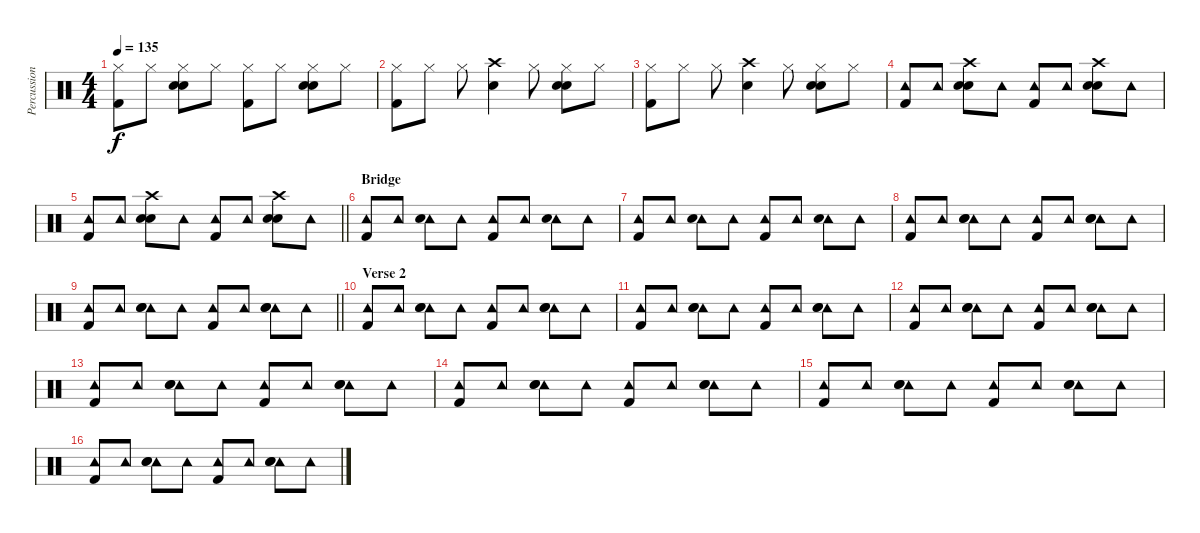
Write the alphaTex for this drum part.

\track ("Percussion" "Percussion") {instrument percussion}
\staff {score}
\articulation defaults
\ts (4 4)
\tempo 135
\clef neutral
\ks c
("Hi-Hat (closed)" "Kick (hit) 2").8{dy f} "Hi-Hat (closed)".8 ("Hi-Hat (closed)" "Snare (hit) 2" "Hand Clap (hit)").8 "Hi-Hat (closed)".8 ("Hi-Hat (closed)" "Kick (hit) 2").8 "Hi-Hat (closed)".8 ("Hi-Hat (closed)" "Snare (hit) 2" "Hand Clap (hit)").8 "Hi-Hat (closed)".8 |
("Hi-Hat (closed)" "Kick (hit) 2").8 "Hi-Hat (closed)".8 "Hi-Hat (closed)".8 ("Crash high (hit)" "Snare (hit) 2").4 "Hi-Hat (closed)".8 ("Hi-Hat (closed)" "Snare (hit) 2" "Hand Clap (hit)").8 "Hi-Hat (closed)".8 |
("Hi-Hat (closed)" "Kick (hit) 2").8 "Hi-Hat (closed)".8 "Hi-Hat (closed)".8 ("Crash high (hit)" "Snare (hit) 2").4 "Hi-Hat (closed)".8 ("Hi-Hat (closed)" "Snare (hit) 2" "Hand Clap (hit)").8 "Hi-Hat (closed)".8 |
("Tambourine (hit)" "Kick (hit) 2").8 "Tambourine (hit)".8 ("Crash high (hit)" "Snare (hit) 2" "Hand Clap (hit)").8 "Tambourine (hit)".8 ("Tambourine (hit)" "Kick (hit) 2").8 "Tambourine (hit)".8 ("Crash high (hit)" "Snare (hit) 2" "Hand Clap (hit)").8 "Tambourine (hit)".8 |
\barLineRight lightlight
("Tambourine (hit)" "Kick (hit) 2").8 "Tambourine (hit)".8 ("Crash high (hit)" "Snare (hit) 2" "Hand Clap (hit)").8 "Tambourine (hit)".8 ("Tambourine (hit)" "Kick (hit) 2").8 "Tambourine (hit)".8 ("Crash high (hit)" "Snare (hit) 2" "Hand Clap (hit)").8 "Tambourine (hit)".8 |
\section ("" "Bridge")
("Tambourine (hit)" "Kick (hit) 2").8 "Tambourine (hit)".8 ("Tambourine (hit)" "Snare (hit) 2").8 "Tambourine (hit)".8 ("Tambourine (hit)" "Kick (hit) 2").8 "Tambourine (hit)".8 ("Tambourine (hit)" "Snare (hit) 2").8 "Tambourine (hit)".8 |
("Tambourine (hit)" "Kick (hit) 2").8 "Tambourine (hit)".8 ("Tambourine (hit)" "Snare (hit) 2").8 "Tambourine (hit)".8 ("Tambourine (hit)" "Kick (hit) 2").8 "Tambourine (hit)".8 ("Tambourine (hit)" "Snare (hit) 2").8 "Tambourine (hit)".8 |
("Tambourine (hit)" "Kick (hit) 2").8 "Tambourine (hit)".8 ("Tambourine (hit)" "Snare (hit) 2" "Hand Clap (hit)").8 "Tambourine (hit)".8 ("Tambourine (hit)" "Kick (hit) 2").8 "Tambourine (hit)".8 ("Tambourine (hit)" "Snare (hit) 2" "Hand Clap (hit)").8 "Tambourine (hit)".8 |
\barLineRight lightlight
("Tambourine (hit)" "Kick (hit) 2").8 "Tambourine (hit)".8 ("Tambourine (hit)" "Snare (hit) 2" "Hand Clap (hit)").8 "Tambourine (hit)".8 ("Tambourine (hit)" "Kick (hit) 2").8 "Tambourine (hit)".8 ("Tambourine (hit)" "Snare (hit) 2" "Hand Clap (hit)").8 "Tambourine (hit)".8 |
\section ("" "Verse 2")
("Tambourine (hit)" "Kick (hit) 2").8 "Tambourine (hit)".8 ("Tambourine (hit)" "Snare (hit) 2" "Hand Clap (hit)").8 "Tambourine (hit)".8 ("Tambourine (hit)" "Kick (hit) 2").8 "Tambourine (hit)".8 ("Tambourine (hit)" "Snare (hit) 2" "Hand Clap (hit)").8 "Tambourine (hit)".8 |
("Tambourine (hit)" "Kick (hit) 2").8 "Tambourine (hit)".8 ("Tambourine (hit)" "Snare (hit) 2" "Hand Clap (hit)").8 "Tambourine (hit)".8 ("Tambourine (hit)" "Kick (hit) 2").8 "Tambourine (hit)".8 ("Tambourine (hit)" "Snare (hit) 2" "Hand Clap (hit)").8 "Tambourine (hit)".8 |
("Tambourine (hit)" "Kick (hit) 2").8 "Tambourine (hit)".8 ("Tambourine (hit)" "Snare (hit) 2" "Hand Clap (hit)").8 "Tambourine (hit)".8 ("Tambourine (hit)" "Kick (hit) 2").8 "Tambourine (hit)".8 ("Tambourine (hit)" "Snare (hit) 2" "Hand Clap (hit)").8 "Tambourine (hit)".8 |
("Tambourine (hit)" "Kick (hit) 2").8 "Tambourine (hit)".8 ("Tambourine (hit)" "Snare (hit) 2" "Hand Clap (hit)").8 "Tambourine (hit)".8 ("Tambourine (hit)" "Kick (hit) 2").8 "Tambourine (hit)".8 ("Tambourine (hit)" "Snare (hit) 2" "Hand Clap (hit)").8 "Tambourine (hit)".8 |
("Tambourine (hit)" "Kick (hit) 2").8 "Tambourine (hit)".8 ("Tambourine (hit)" "Snare (hit) 2" "Hand Clap (hit)").8 "Tambourine (hit)".8 ("Tambourine (hit)" "Kick (hit) 2").8 "Tambourine (hit)".8 ("Tambourine (hit)" "Snare (hit) 2" "Hand Clap (hit)").8 "Tambourine (hit)".8 |
("Tambourine (hit)" "Kick (hit) 2").8 "Tambourine (hit)".8 ("Tambourine (hit)" "Snare (hit) 2" "Hand Clap (hit)").8 "Tambourine (hit)".8 ("Tambourine (hit)" "Kick (hit) 2").8 "Tambourine (hit)".8 ("Tambourine (hit)" "Snare (hit) 2" "Hand Clap (hit)").8 "Tambourine (hit)".8 |
("Tambourine (hit)" "Kick (hit) 2").8 "Tambourine (hit)".8 ("Tambourine (hit)" "Snare (hit) 2" "Hand Clap (hit)").8 "Tambourine (hit)".8 ("Tambourine (hit)" "Kick (hit) 2").8 "Tambourine (hit)".8 ("Tambourine (hit)" "Snare (hit) 2" "Hand Clap (hit)").8 "Tambourine (hit)".8
